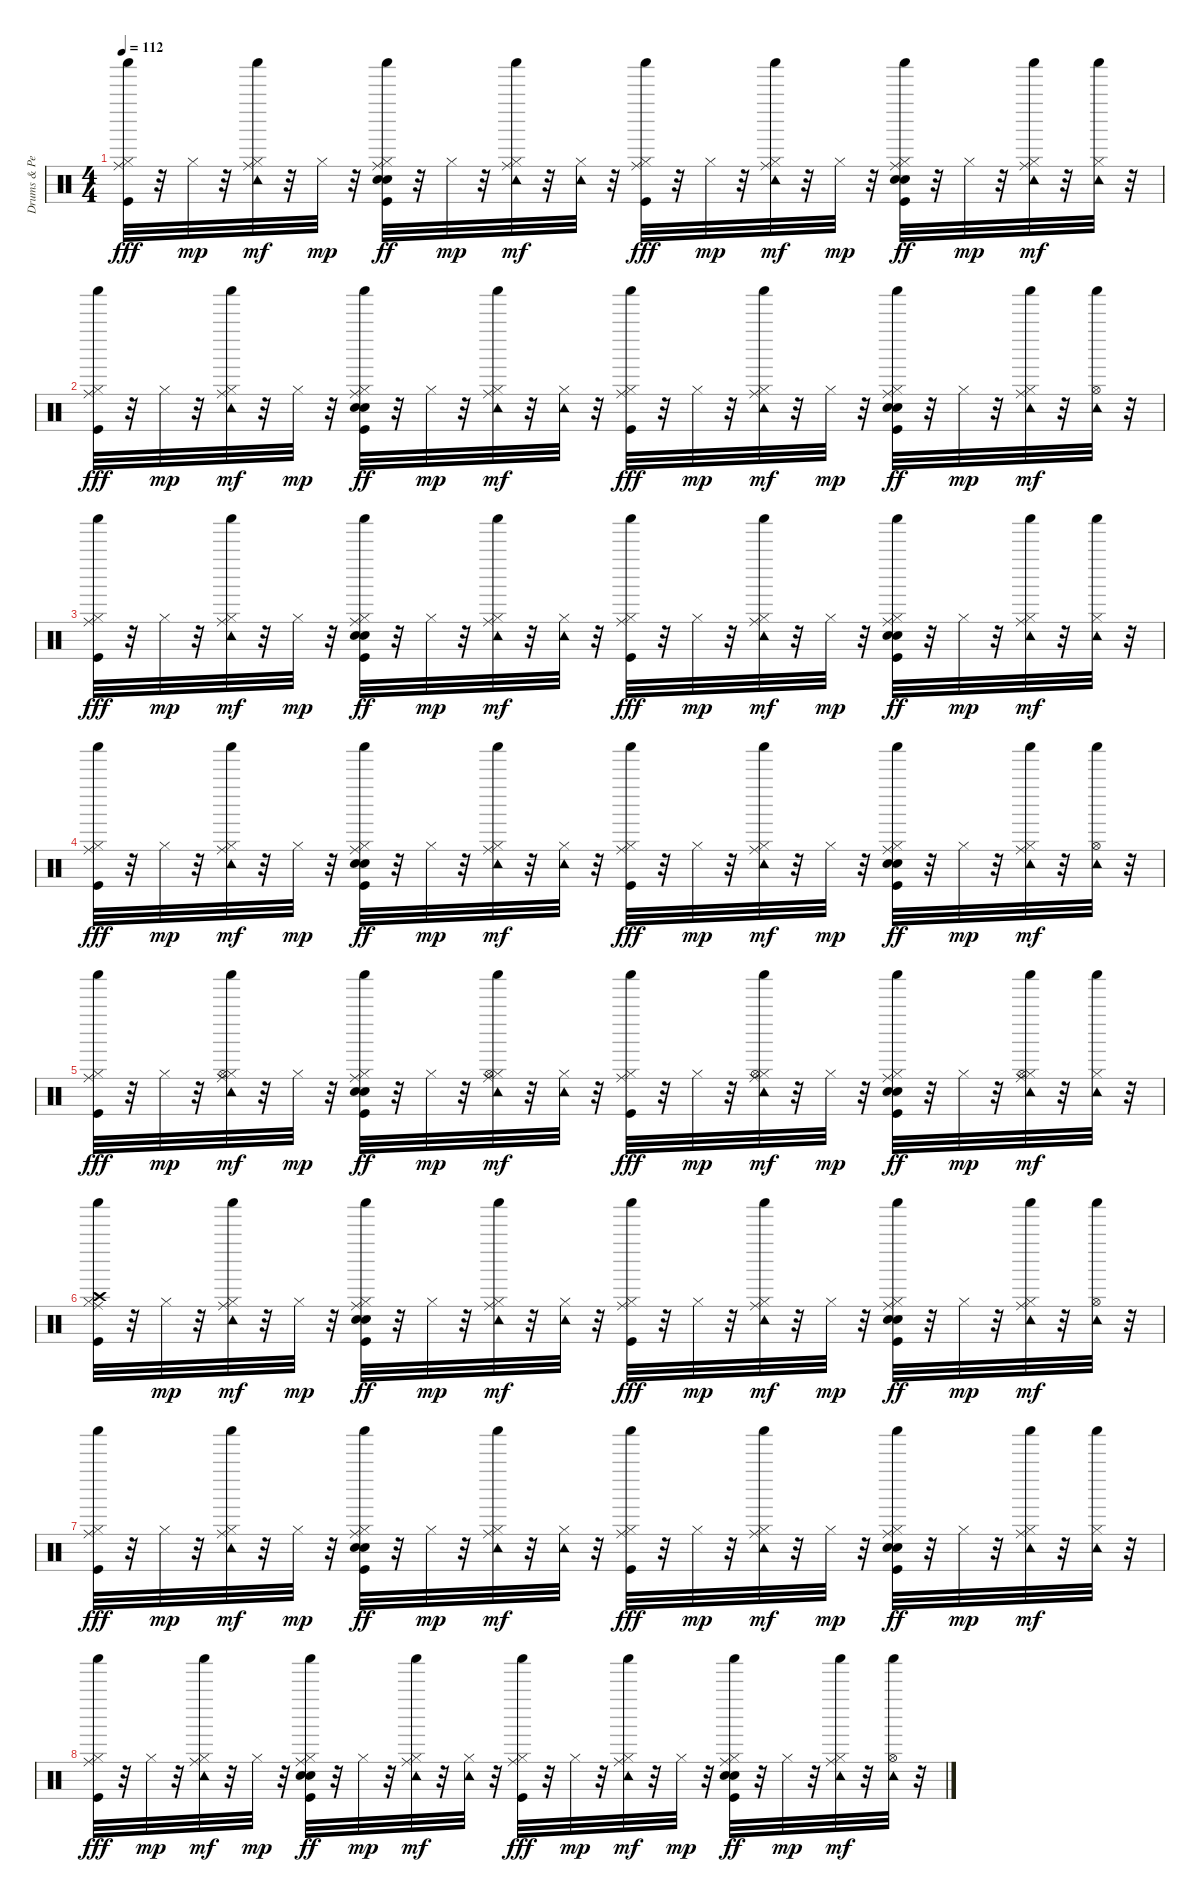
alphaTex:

\track ("Drums & Percussion" "Drums & Pe") {instrument percussion}
\staff {score}
\articulation defaults
\ts (4 4)
\tempo 112
\clef neutral
\ks c
("Shaker (hit)" "Hi-Hat (closed)" "Ride (middle)" "Kick (hit)").32{dy fff} r.32 "Hi-Hat (closed)".32{dy mp} r.32 ("Shaker (hit)" "Hi-Hat (closed)" "Ride (middle)" "Tambourine (hit)").32{dy mf} r.32 "Hi-Hat (closed)".32{dy mp} r.32 ("Shaker (hit)" "Snare (hit) 2" "Hi-Hat (closed)" "Ride (middle)" "Hand Clap (hit)" "Kick (hit)").32{dy ff} r.32 "Hi-Hat (closed)".32{dy mp} r.32 ("Shaker (hit)" "Hi-Hat (closed)" "Ride (middle)" "Tambourine (hit)").32{dy mf} r.32 ("Hi-Hat (closed)" "Tambourine (hit)").32 r.32 ("Shaker (hit)" "Hi-Hat (closed)" "Ride (middle)" "Kick (hit)").32{dy fff} r.32 "Hi-Hat (closed)".32{dy mp} r.32 ("Shaker (hit)" "Hi-Hat (closed)" "Ride (middle)" "Tambourine (hit)").32{dy mf} r.32 "Hi-Hat (closed)".32{dy mp} r.32 ("Shaker (hit)" "Snare (hit) 2" "Hi-Hat (closed)" "Ride (middle)" "Hand Clap (hit)" "Kick (hit)").32{dy ff} r.32 "Hi-Hat (closed)".32{dy mp} r.32 ("Shaker (hit)" "Hi-Hat (closed)" "Ride (middle)" "Tambourine (hit)").32{dy mf} r.32 ("Shaker (hit)" "Hi-Hat (closed)" "Tambourine (hit)").32 r.32 |
("Shaker (hit)" "Hi-Hat (closed)" "Ride (middle)" "Kick (hit)").32{dy fff} r.32 "Hi-Hat (closed)".32{dy mp} r.32 ("Shaker (hit)" "Hi-Hat (closed)" "Ride (middle)" "Tambourine (hit)").32{dy mf} r.32 "Hi-Hat (closed)".32{dy mp} r.32 ("Shaker (hit)" "Snare (hit) 2" "Hi-Hat (closed)" "Ride (middle)" "Hand Clap (hit)" "Kick (hit)").32{dy ff} r.32 "Hi-Hat (closed)".32{dy mp} r.32 ("Shaker (hit)" "Hi-Hat (closed)" "Ride (middle)" "Tambourine (hit)").32{dy mf} r.32 ("Hi-Hat (closed)" "Tambourine (hit)").32 r.32 ("Shaker (hit)" "Hi-Hat (closed)" "Ride (middle)" "Kick (hit)").32{dy fff} r.32 "Hi-Hat (closed)".32{dy mp} r.32 ("Shaker (hit)" "Hi-Hat (closed)" "Ride (middle)" "Tambourine (hit)").32{dy mf} r.32 "Hi-Hat (closed)".32{dy mp} r.32 ("Shaker (hit)" "Snare (hit) 2" "Hi-Hat (closed)" "Ride (middle)" "Hand Clap (hit)" "Kick (hit)").32{dy ff} r.32 "Hi-Hat (closed)".32{dy mp} r.32 ("Shaker (hit)" "Hi-Hat (closed)" "Ride (middle)" "Tambourine (hit)").32{dy mf} r.32 ("Hi-Hat (open)" "Shaker (hit)" "Tambourine (hit)").32 r.32 |
("Shaker (hit)" "Hi-Hat (closed)" "Ride (middle)" "Kick (hit)").32{dy fff} r.32 "Hi-Hat (closed)".32{dy mp} r.32 ("Shaker (hit)" "Hi-Hat (closed)" "Ride (middle)" "Tambourine (hit)").32{dy mf} r.32 "Hi-Hat (closed)".32{dy mp} r.32 ("Shaker (hit)" "Snare (hit) 2" "Hi-Hat (closed)" "Ride (middle)" "Hand Clap (hit)" "Kick (hit)").32{dy ff} r.32 "Hi-Hat (closed)".32{dy mp} r.32 ("Shaker (hit)" "Hi-Hat (closed)" "Ride (middle)" "Tambourine (hit)").32{dy mf} r.32 ("Hi-Hat (closed)" "Tambourine (hit)").32 r.32 ("Shaker (hit)" "Hi-Hat (closed)" "Ride (middle)" "Kick (hit)").32{dy fff} r.32 "Hi-Hat (closed)".32{dy mp} r.32 ("Shaker (hit)" "Hi-Hat (closed)" "Ride (middle)" "Tambourine (hit)").32{dy mf} r.32 "Hi-Hat (closed)".32{dy mp} r.32 ("Shaker (hit)" "Snare (hit) 2" "Hi-Hat (closed)" "Ride (middle)" "Hand Clap (hit)" "Kick (hit)").32{dy ff} r.32 "Hi-Hat (closed)".32{dy mp} r.32 ("Shaker (hit)" "Hi-Hat (closed)" "Ride (middle)" "Tambourine (hit)").32{dy mf} r.32 ("Shaker (hit)" "Hi-Hat (closed)" "Tambourine (hit)").32 r.32 |
("Shaker (hit)" "Hi-Hat (closed)" "Ride (middle)" "Kick (hit)").32{dy fff} r.32 "Hi-Hat (closed)".32{dy mp} r.32 ("Shaker (hit)" "Hi-Hat (closed)" "Ride (middle)" "Tambourine (hit)").32{dy mf} r.32 "Hi-Hat (closed)".32{dy mp} r.32 ("Shaker (hit)" "Snare (hit) 2" "Hi-Hat (closed)" "Ride (middle)" "Hand Clap (hit)" "Kick (hit)").32{dy ff} r.32 "Hi-Hat (closed)".32{dy mp} r.32 ("Shaker (hit)" "Hi-Hat (closed)" "Ride (middle)" "Tambourine (hit)").32{dy mf} r.32 ("Hi-Hat (closed)" "Tambourine (hit)").32 r.32 ("Shaker (hit)" "Hi-Hat (closed)" "Ride (middle)" "Kick (hit)").32{dy fff} r.32 "Hi-Hat (closed)".32{dy mp} r.32 ("Shaker (hit)" "Hi-Hat (closed)" "Ride (middle)" "Tambourine (hit)").32{dy mf} r.32 "Hi-Hat (closed)".32{dy mp} r.32 ("Shaker (hit)" "Snare (hit) 2" "Hi-Hat (closed)" "Ride (middle)" "Hand Clap (hit)" "Kick (hit)").32{dy ff} r.32 "Hi-Hat (closed)".32{dy mp} r.32 ("Shaker (hit)" "Hi-Hat (closed)" "Ride (middle)" "Tambourine (hit)").32{dy mf} r.32 ("Hi-Hat (open)" "Shaker (hit)" "Tambourine (hit)").32 r.32 |
("Shaker (hit)" "Hi-Hat (closed)" "Ride (middle)" "Kick (hit)").32{dy fff} r.32 "Hi-Hat (closed)".32{dy mp} r.32 ("Shaker (hit)" "Hi-Hat (closed)" "Hi-Hat (open)" "Ride (middle)" "Tambourine (hit)").32{dy mf} r.32 "Hi-Hat (closed)".32{dy mp} r.32 ("Shaker (hit)" "Snare (hit) 2" "Hi-Hat (closed)" "Ride (middle)" "Hand Clap (hit)" "Kick (hit)").32{dy ff} r.32 "Hi-Hat (closed)".32{dy mp} r.32 ("Shaker (hit)" "Hi-Hat (closed)" "Hi-Hat (open)" "Ride (middle)" "Tambourine (hit)").32{dy mf} r.32 ("Hi-Hat (closed)" "Tambourine (hit)").32 r.32 ("Shaker (hit)" "Hi-Hat (closed)" "Ride (middle)" "Kick (hit)").32{dy fff} r.32 "Hi-Hat (closed)".32{dy mp} r.32 ("Shaker (hit)" "Hi-Hat (closed)" "Hi-Hat (open)" "Ride (middle)" "Tambourine (hit)").32{dy mf} r.32 "Hi-Hat (closed)".32{dy mp} r.32 ("Shaker (hit)" "Snare (hit) 2" "Hi-Hat (closed)" "Ride (middle)" "Hand Clap (hit)" "Kick (hit)").32{dy ff} r.32 "Hi-Hat (closed)".32{dy mp} r.32 ("Shaker (hit)" "Hi-Hat (closed)" "Hi-Hat (open)" "Ride (middle)" "Tambourine (hit)").32{dy mf} r.32 ("Shaker (hit)" "Hi-Hat (closed)" "Tambourine (hit)").32 r.32 |
("Shaker (hit)" "Hi-Hat (closed)" "Ride (middle)" "Crash high (hit)" "Kick (hit)").32 r.32 "Hi-Hat (closed)".32{dy mp} r.32 ("Shaker (hit)" "Hi-Hat (closed)" "Ride (middle)" "Tambourine (hit)").32{dy mf} r.32 "Hi-Hat (closed)".32{dy mp} r.32 ("Shaker (hit)" "Snare (hit) 2" "Hi-Hat (closed)" "Ride (middle)" "Hand Clap (hit)" "Kick (hit)").32{dy ff} r.32 "Hi-Hat (closed)".32{dy mp} r.32 ("Shaker (hit)" "Hi-Hat (closed)" "Ride (middle)" "Tambourine (hit)").32{dy mf} r.32 ("Hi-Hat (closed)" "Tambourine (hit)").32 r.32 ("Shaker (hit)" "Hi-Hat (closed)" "Ride (middle)" "Kick (hit)").32{dy fff} r.32 "Hi-Hat (closed)".32{dy mp} r.32 ("Shaker (hit)" "Hi-Hat (closed)" "Ride (middle)" "Tambourine (hit)").32{dy mf} r.32 "Hi-Hat (closed)".32{dy mp} r.32 ("Shaker (hit)" "Snare (hit) 2" "Hi-Hat (closed)" "Ride (middle)" "Hand Clap (hit)" "Kick (hit)").32{dy ff} r.32 "Hi-Hat (closed)".32{dy mp} r.32 ("Shaker (hit)" "Hi-Hat (closed)" "Ride (middle)" "Tambourine (hit)").32{dy mf} r.32 ("Hi-Hat (open)" "Shaker (hit)" "Tambourine (hit)").32 r.32 |
("Shaker (hit)" "Hi-Hat (closed)" "Ride (middle)" "Kick (hit)").32{dy fff} r.32 "Hi-Hat (closed)".32{dy mp} r.32 ("Shaker (hit)" "Hi-Hat (closed)" "Ride (middle)" "Tambourine (hit)").32{dy mf} r.32 "Hi-Hat (closed)".32{dy mp} r.32 ("Shaker (hit)" "Snare (hit) 2" "Hi-Hat (closed)" "Ride (middle)" "Hand Clap (hit)" "Kick (hit)").32{dy ff} r.32 "Hi-Hat (closed)".32{dy mp} r.32 ("Shaker (hit)" "Hi-Hat (closed)" "Ride (middle)" "Tambourine (hit)").32{dy mf} r.32 ("Hi-Hat (closed)" "Tambourine (hit)").32 r.32 ("Shaker (hit)" "Hi-Hat (closed)" "Ride (middle)" "Kick (hit)").32{dy fff} r.32 "Hi-Hat (closed)".32{dy mp} r.32 ("Shaker (hit)" "Hi-Hat (closed)" "Ride (middle)" "Tambourine (hit)").32{dy mf} r.32 "Hi-Hat (closed)".32{dy mp} r.32 ("Shaker (hit)" "Snare (hit) 2" "Hi-Hat (closed)" "Ride (middle)" "Hand Clap (hit)" "Kick (hit)").32{dy ff} r.32 "Hi-Hat (closed)".32{dy mp} r.32 ("Shaker (hit)" "Hi-Hat (closed)" "Ride (middle)" "Tambourine (hit)").32{dy mf} r.32 ("Shaker (hit)" "Hi-Hat (closed)" "Tambourine (hit)").32 r.32 |
("Shaker (hit)" "Hi-Hat (closed)" "Ride (middle)" "Kick (hit)").32{dy fff} r.32 "Hi-Hat (closed)".32{dy mp} r.32 ("Shaker (hit)" "Hi-Hat (closed)" "Ride (middle)" "Tambourine (hit)").32{dy mf} r.32 "Hi-Hat (closed)".32{dy mp} r.32 ("Shaker (hit)" "Snare (hit) 2" "Hi-Hat (closed)" "Ride (middle)" "Hand Clap (hit)" "Kick (hit)").32{dy ff} r.32 "Hi-Hat (closed)".32{dy mp} r.32 ("Shaker (hit)" "Hi-Hat (closed)" "Ride (middle)" "Tambourine (hit)").32{dy mf} r.32 ("Hi-Hat (closed)" "Tambourine (hit)").32 r.32 ("Shaker (hit)" "Hi-Hat (closed)" "Ride (middle)" "Kick (hit)").32{dy fff} r.32 "Hi-Hat (closed)".32{dy mp} r.32 ("Shaker (hit)" "Hi-Hat (closed)" "Ride (middle)" "Tambourine (hit)").32{dy mf} r.32 "Hi-Hat (closed)".32{dy mp} r.32 ("Shaker (hit)" "Snare (hit) 2" "Hi-Hat (closed)" "Ride (middle)" "Hand Clap (hit)" "Kick (hit)").32{dy ff} r.32 "Hi-Hat (closed)".32{dy mp} r.32 ("Shaker (hit)" "Hi-Hat (closed)" "Ride (middle)" "Tambourine (hit)").32{dy mf} r.32 ("Hi-Hat (open)" "Shaker (hit)" "Tambourine (hit)").32 r.32
